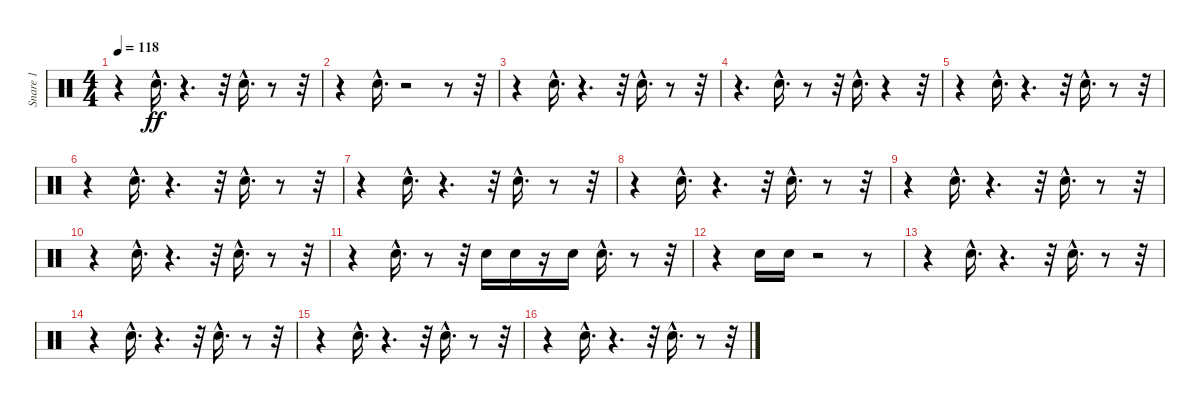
\track ("Snare 1             " "Snare 1   ") {instrument percussion}
\staff {score}
\articulation defaults
\ts (4 4)
\tempo 118
\clef neutral
\ks c
r.4{dy ff} "Snare (hit) 2"{hac}.16{d} r.4{d} r.32 "Snare (hit) 2"{hac}.16{d} r.8 r.32 |
r.4 "Snare (hit) 2"{hac}.16{d} r.2 r.8 r.32 |
r.4 "Snare (hit) 2"{hac}.16{d} r.4{d} r.32 "Snare (hit) 2"{hac}.16{d} r.8 r.32 |
r.4{d} "Snare (hit) 2"{hac}.16{d} r.8 r.32 "Snare (hit) 2"{hac}.16{d} r.4 r.32 |
r.4 "Snare (hit) 2"{hac}.16{d} r.4{d} r.32 "Snare (hit) 2"{hac}.16{d} r.8 r.32 |
r.4 "Snare (hit) 2"{hac}.16{d} r.4{d} r.32 "Snare (hit) 2"{hac}.16{d} r.8 r.32 |
r.4 "Snare (hit) 2"{hac}.16{d} r.4{d} r.32 "Snare (hit) 2"{hac}.16{d} r.8 r.32 |
r.4 "Snare (hit) 2"{hac}.16{d} r.4{d} r.32 "Snare (hit) 2"{hac}.16{d} r.8 r.32 |
r.4 "Snare (hit) 2"{hac}.16{d} r.4{d} r.32 "Snare (hit) 2"{hac}.16{d} r.8 r.32 |
r.4 "Snare (hit) 2"{hac}.16{d} r.4{d} r.32 "Snare (hit) 2"{hac}.16{d} r.8 r.32 |
r.4 "Snare (hit) 2"{hac}.16{d} r.8 r.32 "Snare (hit) 2".16 "Snare (hit) 2".16 r.16 "Snare (hit) 2".16 "Snare (hit) 2"{hac}.16{d} r.8 r.32 |
r.4 "Snare (hit) 2".16 "Snare (hit) 2".16 r.2 r.8 |
r.4 "Snare (hit) 2"{hac}.16{d} r.4{d} r.32 "Snare (hit) 2"{hac}.16{d} r.8 r.32 |
r.4 "Snare (hit) 2"{hac}.16{d} r.4{d} r.32 "Snare (hit) 2"{hac}.16{d} r.8 r.32 |
r.4 "Snare (hit) 2"{hac}.16{d} r.4{d} r.32 "Snare (hit) 2"{hac}.16{d} r.8 r.32 |
r.4 "Snare (hit) 2"{hac}.16{d} r.4{d} r.32 "Snare (hit) 2"{hac}.16{d} r.8 r.32
